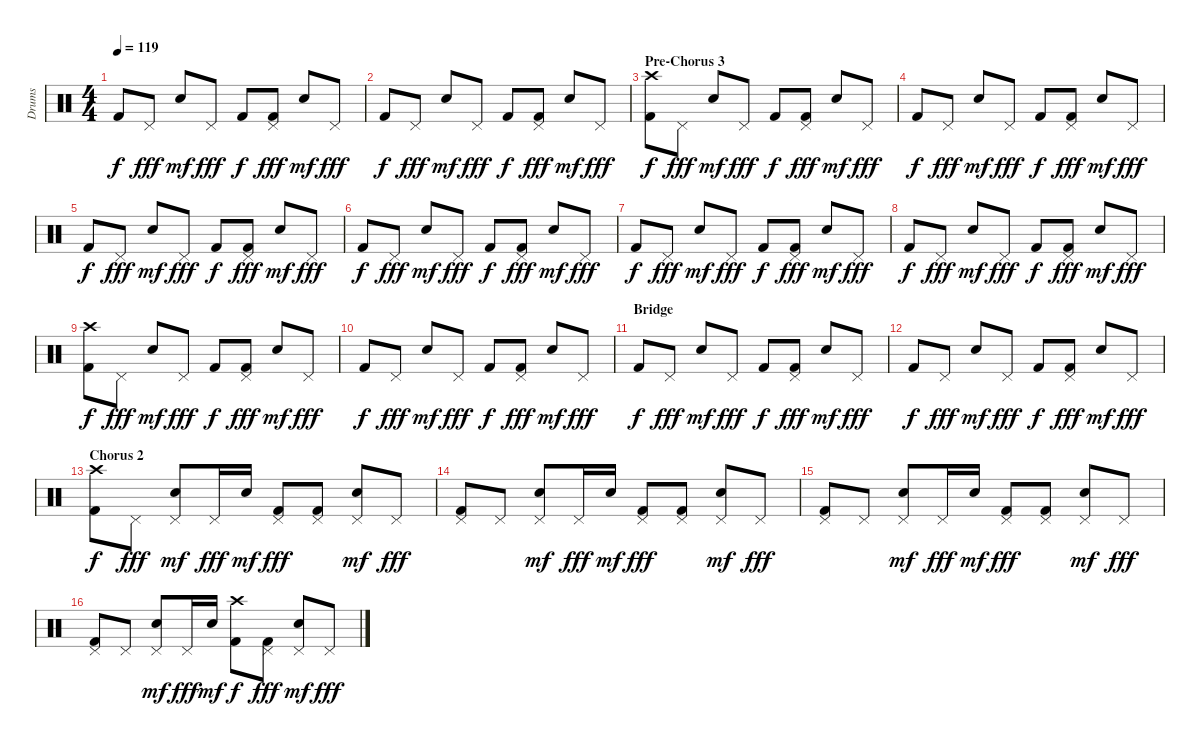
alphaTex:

\track ("Drums" "Drums") {instrument percussion}
\staff {score}
\articulation defaults
\ts (4 4)
\tempo 119
\clef neutral
\ks c "Kick (hit) 2".8{dy f} "Pedal Hi-Hat (hit)".8{dy fff} "Electric Snare (hit)".8{dy mf} "Pedal Hi-Hat (hit)".8{dy fff} "Kick (hit) 2".8{dy f}
("Pedal Hi-Hat (hit)" "Kick (hit) 2").8{dy fff} "Electric Snare (hit)".8{dy mf} "Pedal Hi-Hat (hit)".8{dy fff} |
"Kick (hit) 2".8{dy f} "Pedal Hi-Hat (hit)".8{dy fff} "Electric Snare (hit)".8{dy mf} "Pedal Hi-Hat (hit)".8{dy fff} "Kick (hit) 2".8{dy f} ("Pedal Hi-Hat (hit)" "Kick (hit) 2").8{dy fff} "Electric Snare (hit)".8{dy mf} "Pedal Hi-Hat (hit)".8{dy fff} |
\section ("" "Pre-Chorus 3")
("Crash high (hit)" "Kick (hit) 2").8{dy f} "Pedal Hi-Hat (hit)".8{dy fff} "Electric Snare (hit)".8{dy mf} "Pedal Hi-Hat (hit)".8{dy fff} "Kick (hit) 2".8{dy f} ("Pedal Hi-Hat (hit)" "Kick (hit) 2").8{dy fff} "Electric Snare (hit)".8{dy mf} "Pedal Hi-Hat (hit)".8{dy fff} |
"Kick (hit) 2".8{dy f} "Pedal Hi-Hat (hit)".8{dy fff} "Electric Snare (hit)".8{dy mf} "Pedal Hi-Hat (hit)".8{dy fff} "Kick (hit) 2".8{dy f} ("Pedal Hi-Hat (hit)" "Kick (hit) 2").8{dy fff} "Electric Snare (hit)".8{dy mf} "Pedal Hi-Hat (hit)".8{dy fff} |
"Kick (hit) 2".8{dy f} "Pedal Hi-Hat (hit)".8{dy fff} "Electric Snare (hit)".8{dy mf} "Pedal Hi-Hat (hit)".8{dy fff} "Kick (hit) 2".8{dy f} ("Pedal Hi-Hat (hit)" "Kick (hit) 2").8{dy fff} "Electric Snare (hit)".8{dy mf} "Pedal Hi-Hat (hit)".8{dy fff} |
"Kick (hit) 2".8{dy f} "Pedal Hi-Hat (hit)".8{dy fff} "Electric Snare (hit)".8{dy mf} "Pedal Hi-Hat (hit)".8{dy fff} "Kick (hit) 2".8{dy f} ("Pedal Hi-Hat (hit)" "Kick (hit) 2").8{dy fff} "Electric Snare (hit)".8{dy mf} "Pedal Hi-Hat (hit)".8{dy fff} |
"Kick (hit) 2".8{dy f} "Pedal Hi-Hat (hit)".8{dy fff} "Electric Snare (hit)".8{dy mf} "Pedal Hi-Hat (hit)".8{dy fff} "Kick (hit) 2".8{dy f} ("Pedal Hi-Hat (hit)" "Kick (hit) 2").8{dy fff} "Electric Snare (hit)".8{dy mf} "Pedal Hi-Hat (hit)".8{dy fff} |
"Kick (hit) 2".8{dy f} "Pedal Hi-Hat (hit)".8{dy fff} "Electric Snare (hit)".8{dy mf} "Pedal Hi-Hat (hit)".8{dy fff} "Kick (hit) 2".8{dy f} ("Pedal Hi-Hat (hit)" "Kick (hit) 2").8{dy fff} "Electric Snare (hit)".8{dy mf} "Pedal Hi-Hat (hit)".8{dy fff} |
("Crash high (hit)" "Kick (hit) 2").8{dy f} "Pedal Hi-Hat (hit)".8{dy fff} "Electric Snare (hit)".8{dy mf} "Pedal Hi-Hat (hit)".8{dy fff} "Kick (hit) 2".8{dy f} ("Pedal Hi-Hat (hit)" "Kick (hit) 2").8{dy fff} "Electric Snare (hit)".8{dy mf} "Pedal Hi-Hat (hit)".8{dy fff} |
"Kick (hit) 2".8{dy f} "Pedal Hi-Hat (hit)".8{dy fff} "Electric Snare (hit)".8{dy mf} "Pedal Hi-Hat (hit)".8{dy fff} "Kick (hit) 2".8{dy f} ("Pedal Hi-Hat (hit)" "Kick (hit) 2").8{dy fff} "Electric Snare (hit)".8{dy mf} "Pedal Hi-Hat (hit)".8{dy fff} |
\section ("" "Bridge")
"Kick (hit) 2".8{dy f} "Pedal Hi-Hat (hit)".8{dy fff} "Electric Snare (hit)".8{dy mf} "Pedal Hi-Hat (hit)".8{dy fff} "Kick (hit) 2".8{dy f} ("Pedal Hi-Hat (hit)" "Kick (hit) 2").8{dy fff} "Electric Snare (hit)".8{dy mf} "Pedal Hi-Hat (hit)".8{dy fff} |
"Kick (hit) 2".8{dy f} "Pedal Hi-Hat (hit)".8{dy fff} "Electric Snare (hit)".8{dy mf} "Pedal Hi-Hat (hit)".8{dy fff} "Kick (hit) 2".8{dy f} ("Pedal Hi-Hat (hit)" "Kick (hit) 2").8{dy fff} "Electric Snare (hit)".8{dy mf} "Pedal Hi-Hat (hit)".8{dy fff} |
\section ("" "Chorus 2")
("Crash high (hit)" "Kick (hit) 2").8{dy f} "Pedal Hi-Hat (hit)".8{dy fff} ("Pedal Hi-Hat (hit)" "Electric Snare (hit)").8{dy mf} "Pedal Hi-Hat (hit)".16{dy fff} "Electric Snare (hit)".16{dy mf} ("Pedal Hi-Hat (hit)" "Kick (hit) 2").8{dy fff} ("Pedal Hi-Hat (hit)" "Kick (hit) 2").8 ("Pedal Hi-Hat (hit)" "Electric Snare (hit)").8{dy mf} "Pedal Hi-Hat (hit)".8{dy fff} |
("Pedal Hi-Hat (hit)" "Kick (hit) 2").8 "Pedal Hi-Hat (hit)".8 ("Pedal Hi-Hat (hit)" "Electric Snare (hit)").8{dy mf} "Pedal Hi-Hat (hit)".16{dy fff} "Electric Snare (hit)".16{dy mf} ("Pedal Hi-Hat (hit)" "Kick (hit) 2").8{dy fff} ("Pedal Hi-Hat (hit)" "Kick (hit) 2").8 ("Pedal Hi-Hat (hit)" "Electric Snare (hit)").8{dy mf} "Pedal Hi-Hat (hit)".8{dy fff} |
("Pedal Hi-Hat (hit)" "Kick (hit) 2").8 "Pedal Hi-Hat (hit)".8 ("Pedal Hi-Hat (hit)" "Electric Snare (hit)").8{dy mf} "Pedal Hi-Hat (hit)".16{dy fff} "Electric Snare (hit)".16{dy mf} ("Pedal Hi-Hat (hit)" "Kick (hit) 2").8{dy fff} ("Pedal Hi-Hat (hit)" "Kick (hit) 2").8 ("Pedal Hi-Hat (hit)" "Electric Snare (hit)").8{dy mf} "Pedal Hi-Hat (hit)".8{dy fff} |
("Pedal Hi-Hat (hit)" "Kick (hit) 2").8 "Pedal Hi-Hat (hit)".8 ("Pedal Hi-Hat (hit)" "Electric Snare (hit)").8{dy mf} "Pedal Hi-Hat (hit)".16{dy fff} "Electric Snare (hit)".16{dy mf} ("Crash high (hit)" "Kick (hit) 2").8{dy f} ("Pedal Hi-Hat (hit)" "Kick (hit) 2").8{dy fff} ("Pedal Hi-Hat (hit)" "Electric Snare (hit)").8{dy mf} "Pedal Hi-Hat (hit)".8{dy fff}
